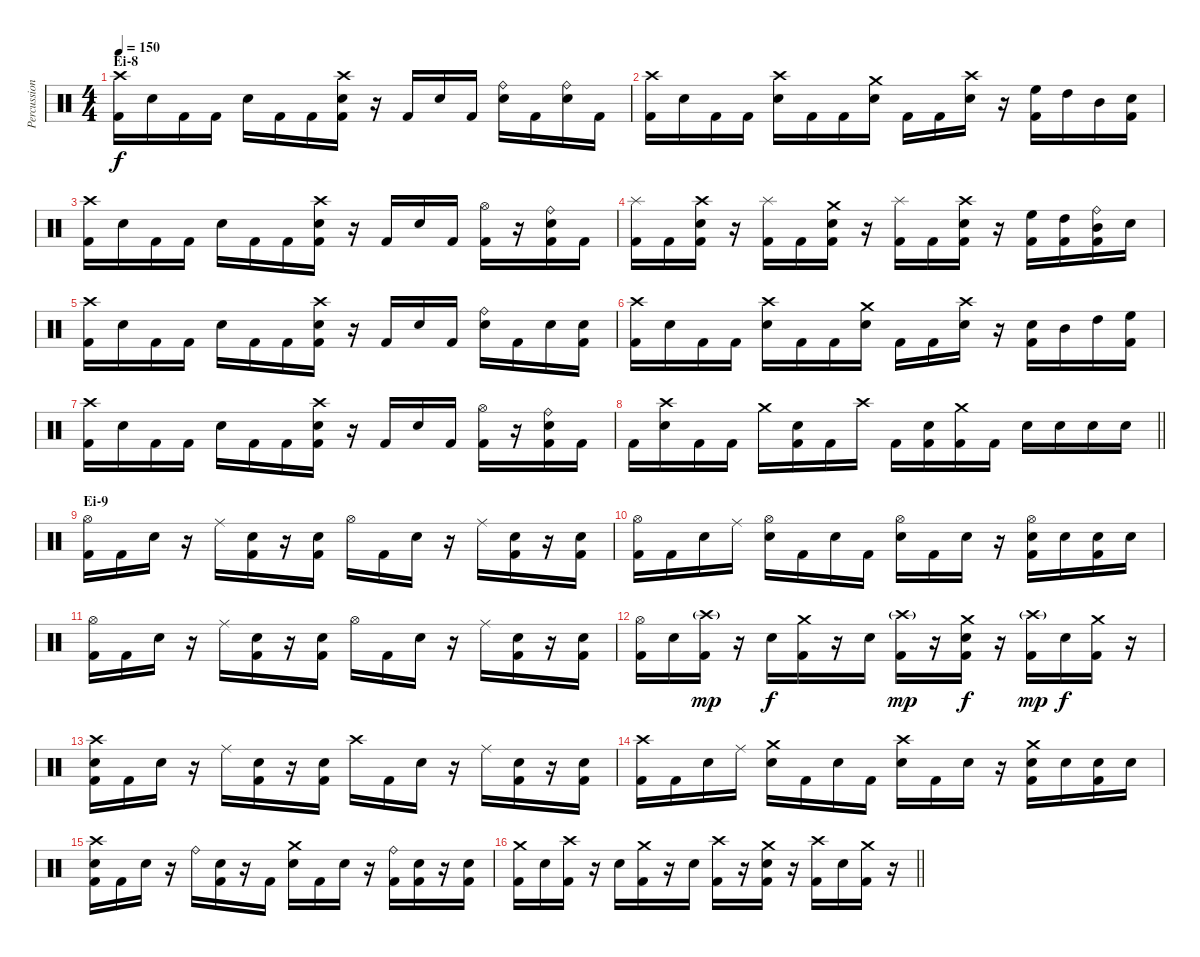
\track ("Percussion" "Percussion") {instrument percussion}
\staff {score}
\articulation defaults
\ts (4 4)
\section ("" "Ei-8")
\tempo 150
\clef neutral
\ks c
("Crash high (hit)" "Kick (hit) 2").16{dy f} "Electric Snare (hit)".16 "Kick (hit) 2".16 "Kick (hit) 2".16 "Electric Snare (hit)".16 "Kick (hit) 2".16 "Kick (hit) 2".16 ("Crash high (hit)" "Electric Snare (hit)" "Kick (hit) 2").16 r.16 "Kick (hit) 2".16 "Electric Snare (hit)".16 "Kick (hit) 2".16 ("Ride (bell)" "Electric Snare (hit)").16 "Kick (hit) 2".16 ("Ride (bell)" "Electric Snare (hit)").16 "Kick (hit) 2".16 |
("Crash high (hit)" "Kick (hit) 2").16 "Electric Snare (hit)".16 "Kick (hit) 2".16 "Kick (hit) 2".16 ("Crash high (hit)" "Electric Snare (hit)").16 "Kick (hit) 2".16 "Kick (hit) 2".16 ("Crash medium (hit)" "Electric Snare (hit)").16 "Kick (hit) 2".16 "Kick (hit) 2".16 ("Crash high (hit)" "Electric Snare (hit)").16 r.16 ("High Floor Tom (hit)" "Kick (hit) 2").16 "High Tom (hit)".16 "Mid Tom (hit)".16 ("Electric Snare (hit)" "Kick (hit) 2").16 |
("Crash high (hit)" "Kick (hit) 2").16 "Electric Snare (hit)".16 "Kick (hit) 2".16 "Kick (hit) 2".16 "Electric Snare (hit)".16 "Kick (hit) 2".16 "Kick (hit) 2".16 ("Crash high (hit)" "Electric Snare (hit)" "Kick (hit) 2").16 r.16 "Kick (hit) 2".16 "Electric Snare (hit)".16 "Kick (hit) 2".16 ("Hi-Hat (open)" "Kick (hit) 2").16 r.16 ("Ride (bell)" "Electric Snare (hit)" "Kick (hit) 2").16 "Kick (hit) 2".16 |
("Splash (hit)" "Kick (hit) 2").16 "Kick (hit) 2".16 ("Crash high (hit)" "Electric Snare (hit)" "Kick (hit) 2").16 r.16 ("Splash (hit)" "Kick (hit) 2").16 "Kick (hit) 2".16 ("Crash medium (hit)" "Electric Snare (hit)" "Kick (hit) 2").16 r.16 ("Splash (hit)" "Kick (hit) 2").16 "Kick (hit) 2".16 ("Crash high (hit)" "Electric Snare (hit)" "Kick (hit) 2").16 r.16 ("High Floor Tom (hit)" "Kick (hit) 2").16 ("High Tom (hit)" "Kick (hit) 2").16 ("Ride (bell)" "Mid Tom (hit)" "Kick (hit) 2").16 "Electric Snare (hit)".16 |
("Crash high (hit)" "Kick (hit) 2").16 "Electric Snare (hit)".16 "Kick (hit) 2".16 "Kick (hit) 2".16 "Electric Snare (hit)".16 "Kick (hit) 2".16 "Kick (hit) 2".16 ("Crash high (hit)" "Electric Snare (hit)" "Kick (hit) 2").16 r.16 "Kick (hit) 2".16 "Electric Snare (hit)".16 "Kick (hit) 2".16 ("Ride (bell)" "Electric Snare (hit)").16 "Kick (hit) 2".16 "Electric Snare (hit)".16 ("Electric Snare (hit)" "Kick (hit) 2").16 |
("Crash high (hit)" "Kick (hit) 2").16 "Electric Snare (hit)".16 "Kick (hit) 2".16 "Kick (hit) 2".16 ("Crash high (hit)" "Electric Snare (hit)").16 "Kick (hit) 2".16 "Kick (hit) 2".16 ("Crash medium (hit)" "Electric Snare (hit)").16 "Kick (hit) 2".16 "Kick (hit) 2".16 ("Crash high (hit)" "Electric Snare (hit)").16 r.16 ("Electric Snare (hit)" "Kick (hit) 2").16 "Mid Tom (hit)".16 "High Tom (hit)".16 ("High Floor Tom (hit)" "Kick (hit) 2").16 |
("Crash high (hit)" "Kick (hit) 2").16 "Electric Snare (hit)".16 "Kick (hit) 2".16 "Kick (hit) 2".16 "Electric Snare (hit)".16 "Kick (hit) 2".16 "Kick (hit) 2".16 ("Crash high (hit)" "Electric Snare (hit)" "Kick (hit) 2").16 r.16 "Kick (hit) 2".16 "Electric Snare (hit)".16 "Kick (hit) 2".16 ("Hi-Hat (open)" "Kick (hit) 2").16 r.16 ("Ride (bell)" "Electric Snare (hit)" "Kick (hit) 2").16 "Kick (hit) 2".16 |
\barLineRight lightlight "Kick (hit) 2".16
("Crash high (hit)" "Electric Snare (hit)").16 "Kick (hit) 2".16 "Kick (hit) 2".16 "Crash medium (hit)".16 ("Electric Snare (hit)" "Kick (hit) 2").16 "Kick (hit) 2".16 "Crash high (hit)".16 "Kick (hit) 2".16 ("Electric Snare (hit)" "Kick (hit) 2").16 ("Crash medium (hit)" "Kick (hit) 2").16 "Kick (hit) 2".16 "Electric Snare (hit)".16 "Electric Snare (hit)".16 "Electric Snare (hit)".16 "Electric Snare (hit)".16 |
\section ("" "Ei-9")
("Hi-Hat (open)" "Kick (hit) 2").16 "Kick (hit) 2".16 "Electric Snare (hit)".16 r.16 "Ride (middle)".16 ("Electric Snare (hit)" "Kick (hit) 2").16 r.16 ("Electric Snare (hit)" "Kick (hit) 2").16 "Hi-Hat (open)".16 "Kick (hit) 2".16 "Electric Snare (hit)".16 r.16 "Ride (middle)".16 ("Electric Snare (hit)" "Kick (hit) 2").16 r.16 ("Electric Snare (hit)" "Kick (hit) 2").16 |
("Hi-Hat (open)" "Kick (hit) 2").16 "Kick (hit) 2".16 "Electric Snare (hit)".16 "Ride (middle)".16 ("Hi-Hat (open)" "Electric Snare (hit)").16 "Kick (hit) 2".16 "Electric Snare (hit)".16 "Kick (hit) 2".16 ("Hi-Hat (open)" "Electric Snare (hit)").16 "Kick (hit) 2".16 "Electric Snare (hit)".16 r.16 ("Hi-Hat (open)" "Electric Snare (hit)" "Kick (hit) 2").16 "Electric Snare (hit)".16 ("Electric Snare (hit)" "Kick (hit) 2").16 "Electric Snare (hit)".16 |
("Hi-Hat (open)" "Kick (hit) 2").16 "Kick (hit) 2".16 "Electric Snare (hit)".16 r.16 "Ride (middle)".16 ("Electric Snare (hit)" "Kick (hit) 2").16 r.16 ("Electric Snare (hit)" "Kick (hit) 2").16 "Hi-Hat (open)".16 "Kick (hit) 2".16 "Electric Snare (hit)".16 r.16 "Ride (middle)".16 ("Electric Snare (hit)" "Kick (hit) 2").16 r.16 ("Electric Snare (hit)" "Kick (hit) 2").16 |
("Hi-Hat (open)" "Kick (hit) 2").16 "Electric Snare (hit)".16 ("Crash high (hit)"{g} "Kick (hit) 2").16{dy mp} r.16 "Electric Snare (hit)".16{dy f} ("Crash medium (hit)" "Kick (hit) 2").16 r.16 "Electric Snare (hit)".16 ("Crash high (hit)"{g} "Kick (hit) 2").16{dy mp} r.16 ("Crash medium (hit)" "Electric Snare (hit)" "Kick (hit) 2").16{dy f} r.16 ("Crash high (hit)"{g} "Kick (hit) 2").16{dy mp} "Electric Snare (hit)".16{dy f} ("Crash medium (hit)" "Kick (hit) 2").16 r.16 |
("Crash high (hit)" "Electric Snare (hit)" "Kick (hit) 2").16 "Kick (hit) 2".16 "Electric Snare (hit)".16 r.16 "Ride (middle)".16 ("Electric Snare (hit)" "Kick (hit) 2").16 r.16 ("Electric Snare (hit)" "Kick (hit) 2").16 "Crash high (hit)".16 "Kick (hit) 2".16 "Electric Snare (hit)".16 r.16 "Ride (middle)".16 ("Electric Snare (hit)" "Kick (hit) 2").16 r.16 ("Electric Snare (hit)" "Kick (hit) 2").16 |
("Crash high (hit)" "Kick (hit) 2").16 "Kick (hit) 2".16 "Electric Snare (hit)".16 "Ride (middle)".16 ("Crash medium (hit)" "Electric Snare (hit)").16 "Kick (hit) 2".16 "Electric Snare (hit)".16 "Kick (hit) 2".16 ("Crash high (hit)" "Electric Snare (hit)").16 "Kick (hit) 2".16 "Electric Snare (hit)".16 r.16 ("Crash medium (hit)" "Electric Snare (hit)" "Kick (hit) 2").16 "Electric Snare (hit)".16 ("Electric Snare (hit)" "Kick (hit) 2").16 "Electric Snare (hit)".16 |
("Crash high (hit)" "Electric Snare (hit)" "Kick (hit) 2").16 "Kick (hit) 2".16 "Electric Snare (hit)".16 r.16 "Ride (bell)".16 ("Electric Snare (hit)" "Kick (hit) 2").16 r.16 "Kick (hit) 2".16 ("Crash medium (hit)" "Electric Snare (hit)").16 "Kick (hit) 2".16 "Electric Snare (hit)".16 r.16 ("Ride (bell)" "Kick (hit) 2").16 ("Electric Snare (hit)" "Kick (hit) 2").16 r.16 ("Electric Snare (hit)" "Kick (hit) 2").16 |
\barLineRight lightlight
("Crash medium (hit)" "Kick (hit) 2").16 "Electric Snare (hit)".16 ("Crash high (hit)" "Kick (hit) 2").16 r.16 "Electric Snare (hit)".16 ("Crash medium (hit)" "Kick (hit) 2").16 r.16 "Electric Snare (hit)".16 ("Crash high (hit)" "Kick (hit) 2").16 r.16 ("Crash medium (hit)" "Electric Snare (hit)" "Kick (hit) 2").16 r.16 ("Crash high (hit)" "Kick (hit) 2").16 "Electric Snare (hit)".16 ("Crash medium (hit)" "Kick (hit) 2").16 r.16
